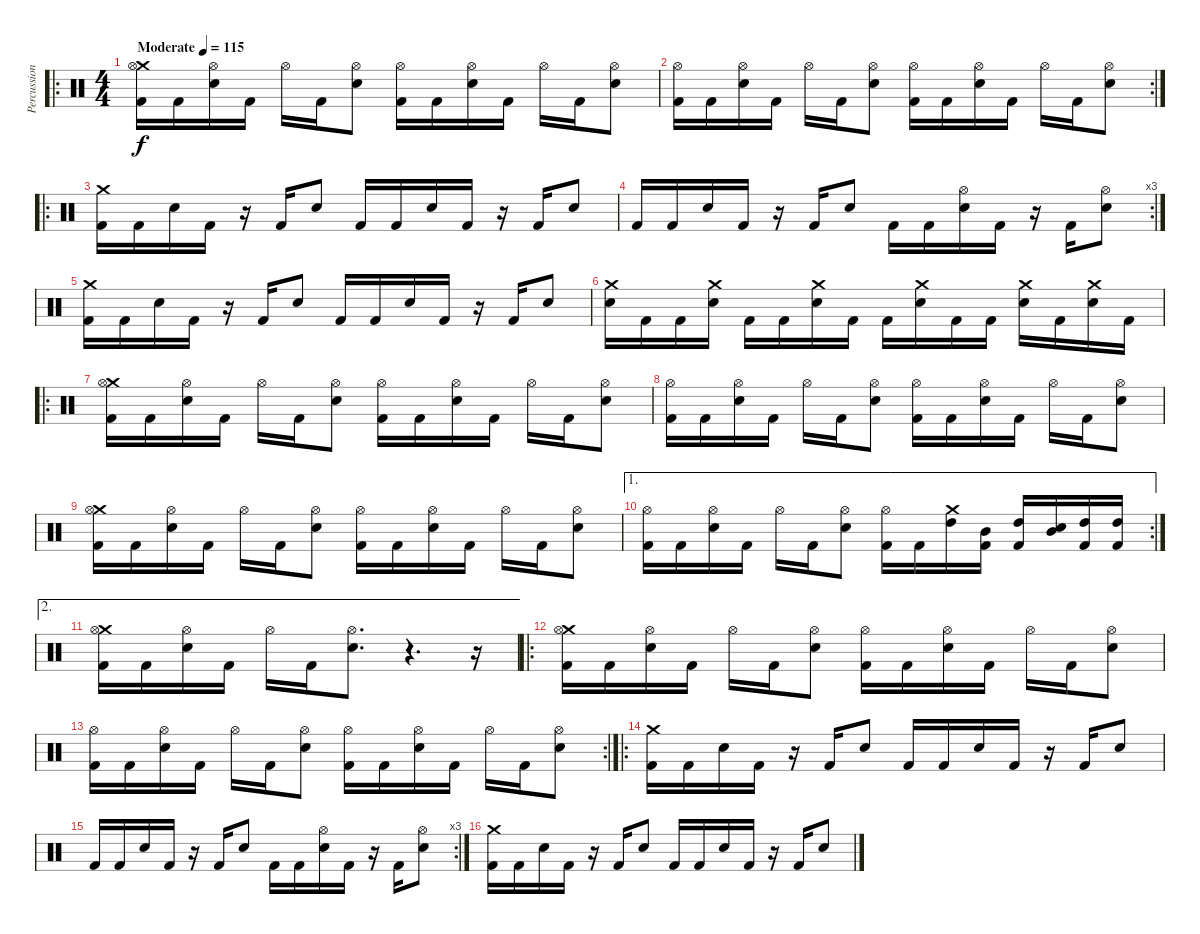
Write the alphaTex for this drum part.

\track ("Percussion" "Percussion") {instrument percussion}
\staff {score}
\articulation defaults
\ro
\ts (4 4)
\tempo (115 "Moderate")
\clef neutral
\ks c
("Crash medium (hit)" "Hi-Hat (open)" "Kick (hit) 2").16{dy f} "Kick (hit) 2".16 ("Hi-Hat (open)" "Snare (hit) 2").16 "Kick (hit) 2".16 "Hi-Hat (open)".16 "Kick (hit) 2".16 ("Hi-Hat (open)" "Snare (hit) 2").8 ("Hi-Hat (open)" "Kick (hit) 2").16 "Kick (hit) 2".16 ("Hi-Hat (open)" "Snare (hit) 2").16 "Kick (hit) 2".16 "Hi-Hat (open)".16 "Kick (hit) 2".16 ("Hi-Hat (open)" "Snare (hit) 2").8 |
\rc 2
("Hi-Hat (open)" "Kick (hit) 2").16 "Kick (hit) 2".16 ("Hi-Hat (open)" "Snare (hit) 2").16 "Kick (hit) 2".16 "Hi-Hat (open)".16 "Kick (hit) 2".16 ("Hi-Hat (open)" "Snare (hit) 2").8 ("Hi-Hat (open)" "Kick (hit) 2").16 "Kick (hit) 2".16 ("Hi-Hat (open)" "Snare (hit) 2").16 "Kick (hit) 2".16 "Hi-Hat (open)".16 "Kick (hit) 2".16 ("Hi-Hat (open)" "Snare (hit) 2").8 |
\ro
("Crash medium (hit)" "Kick (hit) 2").16 "Kick (hit) 2".16 "Snare (hit) 2".16 "Kick (hit) 2".16 r.16 "Kick (hit) 2".16 "Snare (hit) 2".8 "Kick (hit) 2".16 "Kick (hit) 2".16 "Snare (hit) 2".16 "Kick (hit) 2".16 r.16 "Kick (hit) 2".16 "Snare (hit) 2".8 |
\rc 3 "Kick (hit) 2".16 "Kick (hit) 2".16 "Snare (hit) 2".16 "Kick (hit) 2".16
r.16 "Kick (hit) 2".16 "Snare (hit) 2".8 "Kick (hit) 2".16 "Kick (hit) 2".16 ("Hi-Hat (open)" "Snare (hit) 2").16 "Kick (hit) 2".16 r.16 "Kick (hit) 2".16 ("Hi-Hat (open)" "Snare (hit) 2").8 |
("Crash medium (hit)" "Kick (hit) 2").16 "Kick (hit) 2".16 "Snare (hit) 2".16 "Kick (hit) 2".16 r.16 "Kick (hit) 2".16 "Snare (hit) 2".8 "Kick (hit) 2".16 "Kick (hit) 2".16 "Snare (hit) 2".16 "Kick (hit) 2".16 r.16 "Kick (hit) 2".16 "Snare (hit) 2".8 |
("Crash medium (hit)" "Snare (hit) 2").16 "Kick (hit) 2".16 "Kick (hit) 2".16 ("Crash medium (hit)" "Snare (hit) 2").16 "Kick (hit) 2".16 "Kick (hit) 2".16 ("Crash medium (hit)" "Snare (hit) 2").16 "Kick (hit) 2".16 "Kick (hit) 2".16 ("Crash medium (hit)" "Snare (hit) 2").16 "Kick (hit) 2".16 "Kick (hit) 2".16 ("Crash medium (hit)" "Snare (hit) 2").16 "Kick (hit) 2".16 ("Crash medium (hit)" "Snare (hit) 2").16 "Kick (hit) 2".16 |
\ro
("Crash medium (hit)" "Hi-Hat (open)" "Kick (hit) 2").16 "Kick (hit) 2".16 ("Hi-Hat (open)" "Snare (hit) 2").16 "Kick (hit) 2".16 "Hi-Hat (open)".16 "Kick (hit) 2".16 ("Hi-Hat (open)" "Snare (hit) 2").8 ("Hi-Hat (open)" "Kick (hit) 2").16 "Kick (hit) 2".16 ("Hi-Hat (open)" "Snare (hit) 2").16 "Kick (hit) 2".16 "Hi-Hat (open)".16 "Kick (hit) 2".16 ("Hi-Hat (open)" "Snare (hit) 2").8 |
("Hi-Hat (open)" "Kick (hit) 2").16 "Kick (hit) 2".16 ("Hi-Hat (open)" "Snare (hit) 2").16 "Kick (hit) 2".16 "Hi-Hat (open)".16 "Kick (hit) 2".16 ("Hi-Hat (open)" "Snare (hit) 2").8 ("Hi-Hat (open)" "Kick (hit) 2").16 "Kick (hit) 2".16 ("Hi-Hat (open)" "Snare (hit) 2").16 "Kick (hit) 2".16 "Hi-Hat (open)".16 "Kick (hit) 2".16 ("Hi-Hat (open)" "Snare (hit) 2").8 |
("Crash medium (hit)" "Hi-Hat (open)" "Kick (hit) 2").16 "Kick (hit) 2".16 ("Hi-Hat (open)" "Snare (hit) 2").16 "Kick (hit) 2".16 "Hi-Hat (open)".16 "Kick (hit) 2".16 ("Hi-Hat (open)" "Snare (hit) 2").8 ("Hi-Hat (open)" "Kick (hit) 2").16 "Kick (hit) 2".16 ("Hi-Hat (open)" "Snare (hit) 2").16 "Kick (hit) 2".16 "Hi-Hat (open)".16 "Kick (hit) 2".16 ("Hi-Hat (open)" "Snare (hit) 2").8 |
\ae 1
\rc 2
("Hi-Hat (open)" "Kick (hit) 2").16 "Kick (hit) 2".16 ("Hi-Hat (open)" "Snare (hit) 2").16 "Kick (hit) 2".16 "Hi-Hat (open)".16 "Kick (hit) 2".16 ("Hi-Hat (open)" "Snare (hit) 2").8 ("Hi-Hat (open)" "Kick (hit) 2").16 "Kick (hit) 2".16 ("Crash medium (hit)" "High Tom (hit)").16 ("Mid Tom (hit)" "Kick (hit) 2").16 ("High Tom (hit)" "Kick (hit) 2").16 ("Mid Tom (hit)" "Snare (hit) 2").16 ("High Tom (hit)" "Kick (hit) 2").16 ("High Tom (hit)" "Kick (hit) 2").16 |
\ae 2
("Crash medium (hit)" "Hi-Hat (open)" "Kick (hit) 2").16 "Kick (hit) 2".16 ("Hi-Hat (open)" "Snare (hit) 2").16 "Kick (hit) 2".16 "Hi-Hat (open)".16 "Kick (hit) 2".16 ("Hi-Hat (open)" "Snare (hit) 2").8{d} r.4{d} r.16 |
\ro
("Crash medium (hit)" "Hi-Hat (open)" "Kick (hit) 2").16 "Kick (hit) 2".16 ("Hi-Hat (open)" "Snare (hit) 2").16 "Kick (hit) 2".16 "Hi-Hat (open)".16 "Kick (hit) 2".16 ("Hi-Hat (open)" "Snare (hit) 2").8 ("Hi-Hat (open)" "Kick (hit) 2").16 "Kick (hit) 2".16 ("Hi-Hat (open)" "Snare (hit) 2").16 "Kick (hit) 2".16 "Hi-Hat (open)".16 "Kick (hit) 2".16 ("Hi-Hat (open)" "Snare (hit) 2").8 |
\rc 2
("Hi-Hat (open)" "Kick (hit) 2").16 "Kick (hit) 2".16 ("Hi-Hat (open)" "Snare (hit) 2").16 "Kick (hit) 2".16 "Hi-Hat (open)".16 "Kick (hit) 2".16 ("Hi-Hat (open)" "Snare (hit) 2").8 ("Hi-Hat (open)" "Kick (hit) 2").16 "Kick (hit) 2".16 ("Hi-Hat (open)" "Snare (hit) 2").16 "Kick (hit) 2".16 "Hi-Hat (open)".16 "Kick (hit) 2".16 ("Hi-Hat (open)" "Snare (hit) 2").8 |
\ro
("Crash medium (hit)" "Kick (hit) 2").16 "Kick (hit) 2".16 "Snare (hit) 2".16 "Kick (hit) 2".16 r.16 "Kick (hit) 2".16 "Snare (hit) 2".8 "Kick (hit) 2".16 "Kick (hit) 2".16 "Snare (hit) 2".16 "Kick (hit) 2".16 r.16 "Kick (hit) 2".16 "Snare (hit) 2".8 |
\rc 3 "Kick (hit) 2".16 "Kick (hit) 2".16 "Snare (hit) 2".16 "Kick (hit) 2".16
r.16 "Kick (hit) 2".16 "Snare (hit) 2".8 "Kick (hit) 2".16 "Kick (hit) 2".16 ("Hi-Hat (open)" "Snare (hit) 2").16 "Kick (hit) 2".16 r.16 "Kick (hit) 2".16 ("Hi-Hat (open)" "Snare (hit) 2").8 |
("Crash medium (hit)" "Kick (hit) 2").16 "Kick (hit) 2".16 "Snare (hit) 2".16 "Kick (hit) 2".16 r.16 "Kick (hit) 2".16 "Snare (hit) 2".8 "Kick (hit) 2".16 "Kick (hit) 2".16 "Snare (hit) 2".16 "Kick (hit) 2".16 r.16 "Kick (hit) 2".16 "Snare (hit) 2".8
